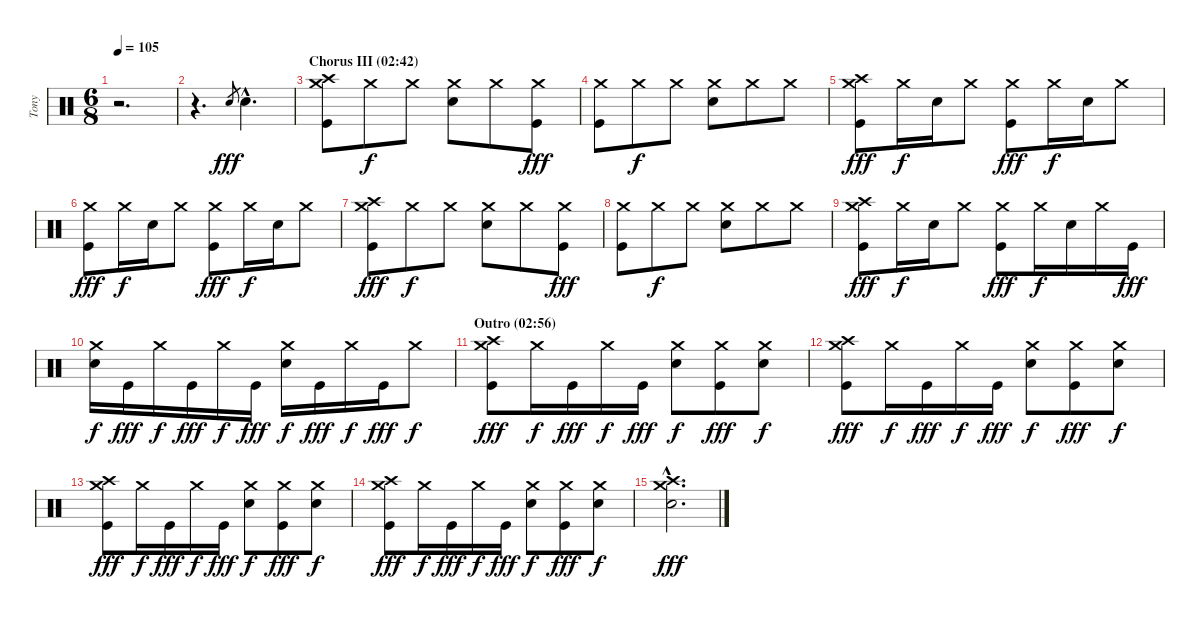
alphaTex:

\track ("Tony" "Tony") {instrument percussion}
\staff {score}
\articulation defaults
\ts (6 8)
\tempo 105
\clef neutral
\ks c
r.2{d dy fff} |
r.4{d} "Snare (hit) 2".8{gr} "Snare (hit) 2"{hac}.4{d} |
\section ("" "Chorus III (02:42)")
("Crash medium (hit)" "Crash high (hit)" "Kick (hit)").8 "Crash medium (hit)".8{dy f} "Crash medium (hit)".8 ("Crash medium (hit)" "Snare (hit) 2").8 "Crash medium (hit)".8 ("Crash medium (hit)" "Kick (hit)").8{dy fff} |
("Crash medium (hit)" "Kick (hit)").8 "Crash medium (hit)".8{dy f} "Crash medium (hit)".8 ("Crash medium (hit)" "Snare (hit) 2").8 "Crash medium (hit)".8 "Crash medium (hit)".8 |
("Crash medium (hit)" "Crash high (hit)" "Kick (hit)").8{dy fff} "Crash medium (hit)".16{dy f} "Snare (hit) 2".16 "Crash medium (hit)".8 ("Crash medium (hit)" "Kick (hit)").8{dy fff} "Crash medium (hit)".16{dy f} "Snare (hit) 2".16 "Crash medium (hit)".8 |
("Crash medium (hit)" "Kick (hit)").8{dy fff} "Crash medium (hit)".16{dy f} "Snare (hit) 2".16 "Crash medium (hit)".8 ("Crash medium (hit)" "Kick (hit)").8{dy fff} "Crash medium (hit)".16{dy f} "Snare (hit) 2".16 "Crash medium (hit)".8 |
("Crash medium (hit)" "Crash high (hit)" "Kick (hit)").8{dy fff} "Crash medium (hit)".8{dy f} "Crash medium (hit)".8 ("Crash medium (hit)" "Snare (hit) 2").8 "Crash medium (hit)".8 ("Crash medium (hit)" "Kick (hit)").8{dy fff} |
("Crash medium (hit)" "Kick (hit)").8 "Crash medium (hit)".8{dy f} "Crash medium (hit)".8 ("Crash medium (hit)" "Snare (hit) 2").8 "Crash medium (hit)".8 "Crash medium (hit)".8 |
("Crash medium (hit)" "Crash high (hit)" "Kick (hit)").8{dy fff} "Crash medium (hit)".16{dy f} "Snare (hit) 2".16 "Crash medium (hit)".8 ("Crash medium (hit)" "Kick (hit)").8{dy fff} "Crash medium (hit)".16{dy f} "Snare (hit) 2".16 "Crash medium (hit)".16 "Kick (hit)".16{dy fff} |
("Crash medium (hit)" "Snare (hit) 2").16{dy f} "Kick (hit)".16{dy fff} "Crash medium (hit)".16{dy f} "Kick (hit)".16{dy fff} "Crash medium (hit)".16{dy f} "Kick (hit)".16{dy fff} ("Crash medium (hit)" "Snare (hit) 2").16{dy f} "Kick (hit)".16{dy fff} "Crash medium (hit)".16{dy f} "Kick (hit)".16{dy fff} "Crash medium (hit)".8{dy f} |
\section ("" "Outro (02:56)")
("Crash medium (hit)" "Crash high (hit)" "Kick (hit)").8{dy fff} "Crash medium (hit)".16{dy f} "Kick (hit)".16{dy fff} "Crash medium (hit)".16{dy f} "Kick (hit)".16{dy fff} ("Crash medium (hit)" "Snare (hit) 2").8{dy f} ("Crash medium (hit)" "Kick (hit)").8{dy fff} ("Crash medium (hit)" "Snare (hit) 2").8{dy f} |
("Crash medium (hit)" "Crash high (hit)" "Kick (hit)").8{dy fff} "Crash medium (hit)".16{dy f} "Kick (hit)".16{dy fff} "Crash medium (hit)".16{dy f} "Kick (hit)".16{dy fff} ("Crash medium (hit)" "Snare (hit) 2").8{dy f} ("Crash medium (hit)" "Kick (hit)").8{dy fff} ("Crash medium (hit)" "Snare (hit) 2").8{dy f} |
("Crash medium (hit)" "Crash high (hit)" "Kick (hit)").8{dy fff} "Crash medium (hit)".16{dy f} "Kick (hit)".16{dy fff} "Crash medium (hit)".16{dy f} "Kick (hit)".16{dy fff} ("Crash medium (hit)" "Snare (hit) 2").8{dy f} ("Crash medium (hit)" "Kick (hit)").8{dy fff} ("Crash medium (hit)" "Snare (hit) 2").8{dy f} |
("Crash medium (hit)" "Crash high (hit)" "Kick (hit)").8{dy fff} "Crash medium (hit)".16{dy f} "Kick (hit)".16{dy fff} "Crash medium (hit)".16{dy f} "Kick (hit)".16{dy fff} ("Crash medium (hit)" "Snare (hit) 2").8{dy f} ("Crash medium (hit)" "Kick (hit)").8{dy fff} ("Crash medium (hit)" "Snare (hit) 2").8{dy f} |
("Crash medium (hit)"{hac} "Crash high (hit)"{hac} "Snare (hit) 2"{hac}).2{d dy fff}
